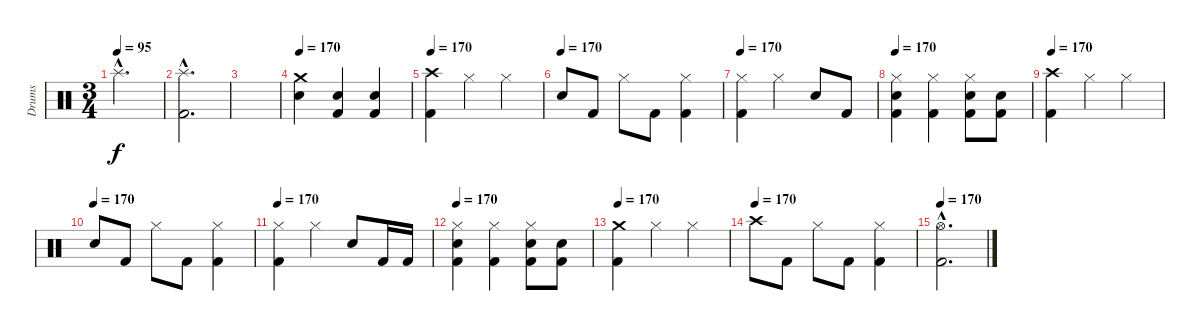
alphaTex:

\track ("Drums" "Drums") {instrument percussion}
\staff {score}
\articulation defaults
\ts (3 4)
\tempo 95
\clef neutral
\ks c "Splash (hit)"{hac}.2{d dy f}
|
("Splash (hit)"{hac} "Kick (hit) 2"{hac}).2{d} |
|
\tempo 170
("Crash medium (hit)" "Electric Snare (hit)").4 ("Electric Snare (hit)" "Kick (hit) 2").4 ("Electric Snare (hit)" "Kick (hit) 2").4 |
\tempo 170
("Crash high (hit)" "Kick (hit) 2").4 "Hi-Hat (closed)".4 "Hi-Hat (closed)".4 |
\tempo (170)
"Electric Snare (hit)".8 "Kick (hit) 2".8 "Hi-Hat (closed)".8 "Kick (hit) 2".8 ("Hi-Hat (closed)" "Kick (hit) 2").4 |
\tempo 170
("Hi-Hat (closed)" "Kick (hit) 2").4 "Hi-Hat (closed)".4 "Electric Snare (hit)".8 "Kick (hit) 2".8 |
\tempo 170
("Hi-Hat (closed)" "Electric Snare (hit)" "Kick (hit) 2").4 ("Hi-Hat (closed)" "Kick (hit) 2").4 ("Hi-Hat (closed)" "Electric Snare (hit)" "Kick (hit) 2").8 ("Electric Snare (hit)" "Kick (hit) 2").8 |
\tempo 170
("Crash high (hit)" "Kick (hit) 2").4 "Hi-Hat (closed)".4 "Hi-Hat (closed)".4 |
\tempo (170)
"Electric Snare (hit)".8 "Kick (hit) 2".8 "Hi-Hat (closed)".8 "Kick (hit) 2".8 ("Hi-Hat (closed)" "Kick (hit) 2").4 |
\tempo 170
("Hi-Hat (closed)" "Kick (hit) 2").4 "Hi-Hat (closed)".4 "Electric Snare (hit)".8 "Kick (hit) 2".16 "Kick (hit) 2".16 |
\tempo 170
("Hi-Hat (closed)" "Electric Snare (hit)" "Kick (hit) 2").4 ("Hi-Hat (closed)" "Kick (hit) 2").4 ("Hi-Hat (closed)" "Electric Snare (hit)" "Kick (hit) 2").8 ("Electric Snare (hit)" "Kick (hit) 2").8 |
\tempo 170
("Crash medium (hit)" "Kick (hit) 2").4 "Hi-Hat (closed)".4 "Hi-Hat (closed)".4 |
\tempo (170)
"Crash high (hit)".8 "Kick (hit) 2".8 "Hi-Hat (closed)".8 "Kick (hit) 2".8 ("Hi-Hat (closed)" "Kick (hit) 2").4 |
\tempo 170
("Hi-Hat (open)"{hac} "Kick (hit) 2"{hac}).2{d}
